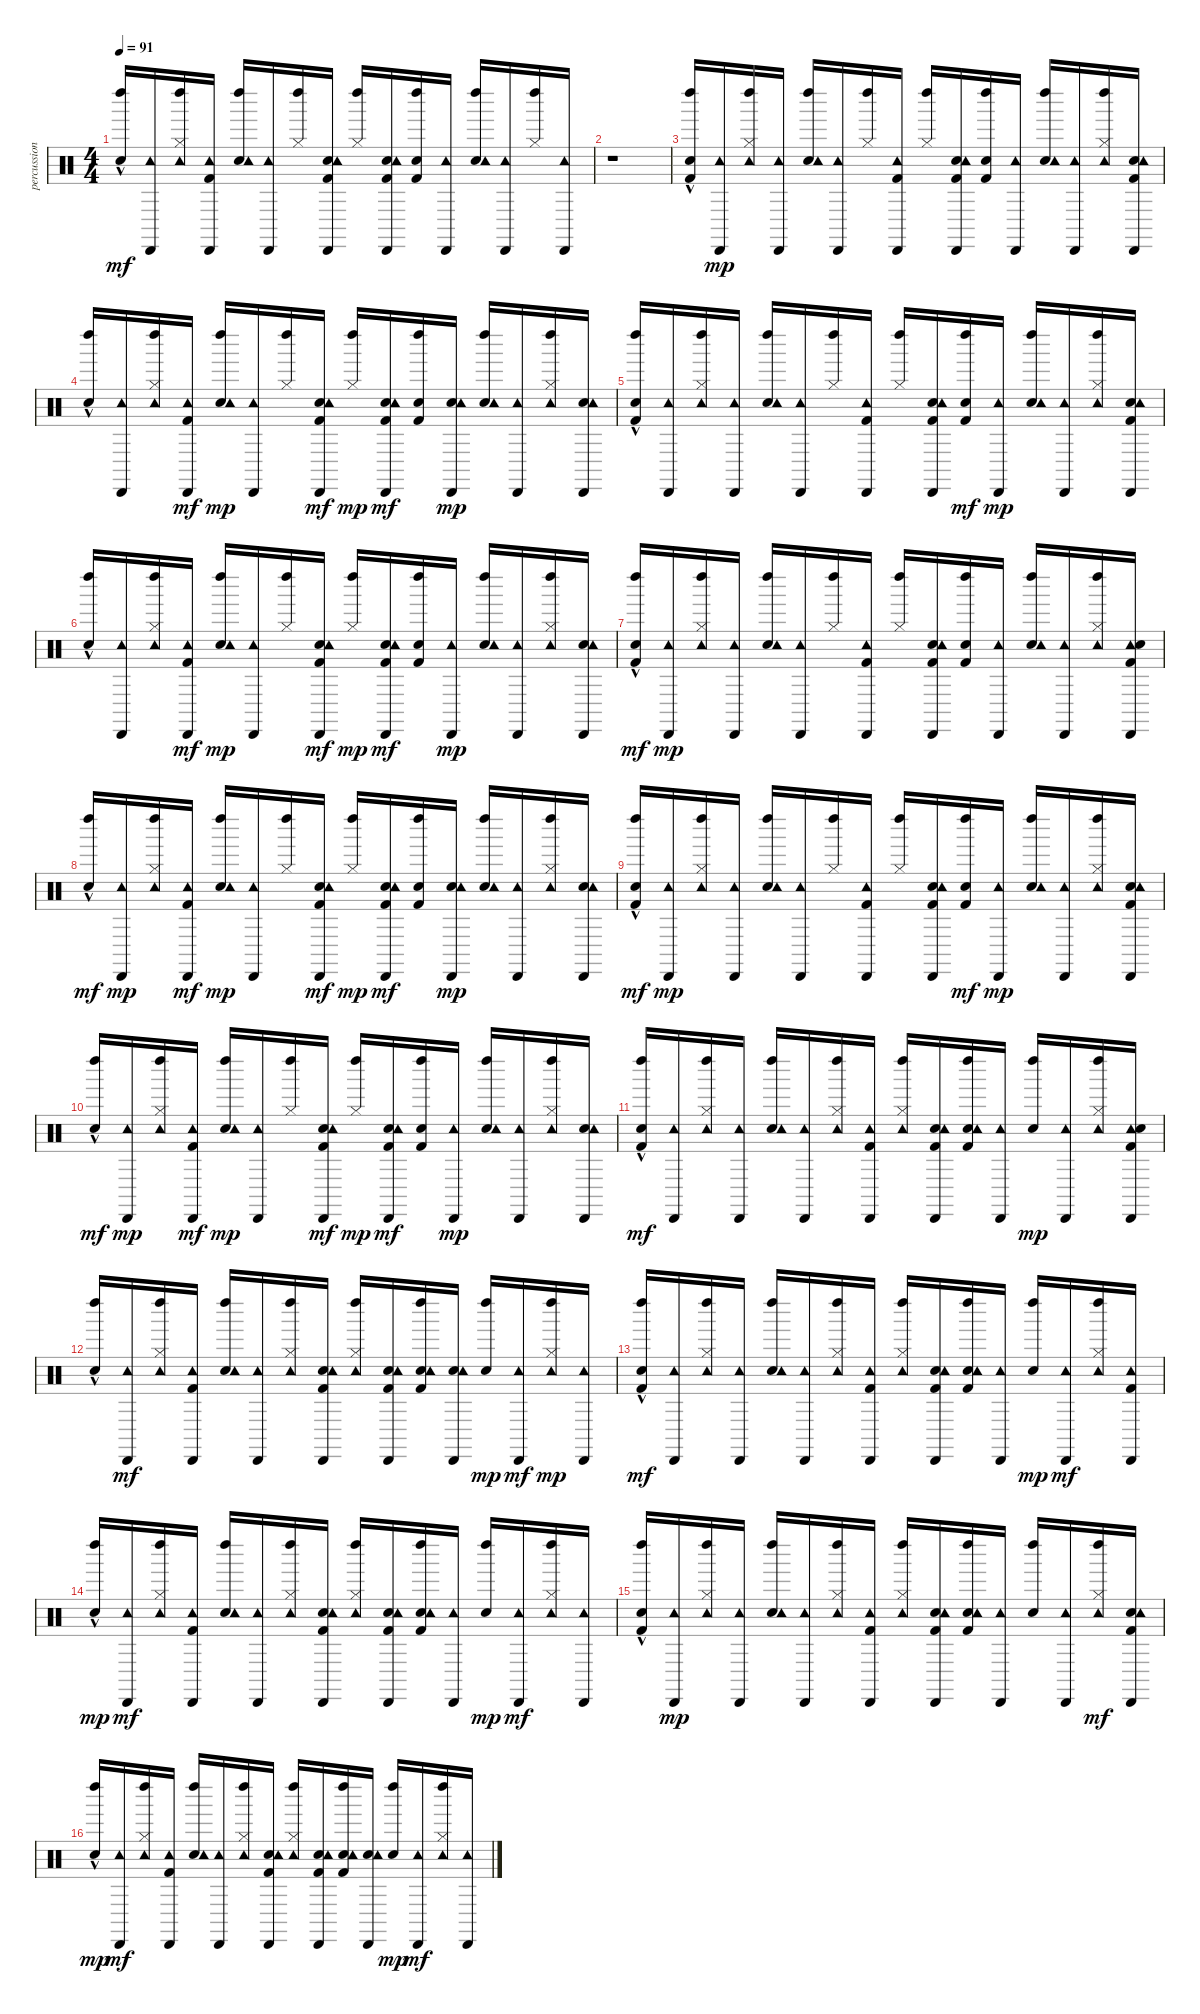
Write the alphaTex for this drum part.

\track ("percussion" "percussion") {instrument percussion}
\staff {score}
\articulation defaults
\ts (4 4)
\tempo 91
\clef neutral
\ks c
("Electric Snare (hit)"{hac} "Left Maraca (hit)").16{dy mf} ("Tambourine (hit)" "Cabasa (hit)").16 ("Hi-Hat (closed)" "Tambourine (hit)" "Left Maraca (hit)").16 ("Tambourine (hit)" "Kick (hit) 2" "Cabasa (hit)").16 ("Electric Snare (hit)" "Tambourine (hit)" "Left Maraca (hit)").16 ("Tambourine (hit)" "Cabasa (hit)").16 ("Hi-Hat (closed)" "Left Maraca (hit)").16 ("Electric Snare (hit)" "Tambourine (hit)" "Kick (hit) 2" "Cabasa (hit)").16 ("Hi-Hat (closed)" "Left Maraca (hit)").16 ("Electric Snare (hit)" "Tambourine (hit)" "Kick (hit) 2" "Cabasa (hit)").16 ("Electric Snare (hit)" "Kick (hit) 2" "Left Maraca (hit)").16 ("Tambourine (hit)" "Cabasa (hit)").16 ("Electric Snare (hit)" "Tambourine (hit)" "Left Maraca (hit)").16 ("Tambourine (hit)" "Cabasa (hit)").16 ("Hi-Hat (closed)" "Left Maraca (hit)").16 ("Tambourine (hit)" "Cabasa (hit)").16 |
r.1 |
("Left Maraca (hit)" "Electric Snare (hit)"{hac} "Kick (hit) 2").16 ("Cabasa (hit)" "Tambourine (hit)").16{dy mp volume 10} ("Hi-Hat (closed)" "Left Maraca (hit)" "Tambourine (hit)").16 ("Cabasa (hit)" "Tambourine (hit)").16 ("Electric Snare (hit)" "Left Maraca (hit)" "Tambourine (hit)").16 ("Cabasa (hit)" "Tambourine (hit)").16 ("Hi-Hat (closed)" "Left Maraca (hit)").16 ("Kick (hit) 2" "Cabasa (hit)" "Tambourine (hit)").16 ("Hi-Hat (closed)" "Left Maraca (hit)").16 ("Electric Snare (hit)" "Kick (hit) 2" "Cabasa (hit)" "Tambourine (hit)").16 ("Electric Snare (hit)" "Kick (hit) 2" "Left Maraca (hit)").16 ("Cabasa (hit)" "Tambourine (hit)").16 ("Electric Snare (hit)" "Left Maraca (hit)" "Tambourine (hit)").16 ("Cabasa (hit)" "Tambourine (hit)").16 ("Hi-Hat (closed)" "Left Maraca (hit)" "Tambourine (hit)").16 ("Electric Snare (hit)" "Kick (hit) 2" "Cabasa (hit)" "Tambourine (hit)").16 |
("Electric Snare (hit)"{hac} "Left Maraca (hit)").16 ("Tambourine (hit)" "Cabasa (hit)").16 ("Hi-Hat (closed)" "Tambourine (hit)" "Left Maraca (hit)").16 ("Tambourine (hit)" "Cabasa (hit)" "Kick (hit) 2").16{dy mf} ("Electric Snare (hit)" "Tambourine (hit)" "Left Maraca (hit)").16{dy mp} ("Tambourine (hit)" "Cabasa (hit)").16 ("Hi-Hat (closed)" "Left Maraca (hit)").16 ("Electric Snare (hit)" "Tambourine (hit)" "Cabasa (hit)" "Kick (hit) 2").16{dy mf} ("Hi-Hat (closed)" "Left Maraca (hit)").16{dy mp} ("Electric Snare (hit)" "Tambourine (hit)" "Cabasa (hit)" "Kick (hit) 2").16{dy mf} ("Electric Snare (hit)" "Left Maraca (hit)" "Kick (hit) 2").16 ("Electric Snare (hit)" "Tambourine (hit)" "Cabasa (hit)").16{dy mp} ("Electric Snare (hit)" "Tambourine (hit)" "Left Maraca (hit)").16 ("Tambourine (hit)" "Cabasa (hit)").16 ("Tambourine (hit)" "Hi-Hat (closed)" "Left Maraca (hit)").16 ("Electric Snare (hit)" "Tambourine (hit)" "Cabasa (hit)").16 |
("Kick (hit) 2" "Electric Snare (hit)"{hac} "Left Maraca (hit)").16 ("Tambourine (hit)" "Cabasa (hit)").16 ("Hi-Hat (closed)" "Tambourine (hit)" "Left Maraca (hit)").16 ("Tambourine (hit)" "Cabasa (hit)").16 ("Electric Snare (hit)" "Tambourine (hit)" "Left Maraca (hit)").16 ("Tambourine (hit)" "Cabasa (hit)").16 ("Hi-Hat (closed)" "Left Maraca (hit)").16 ("Kick (hit) 2" "Tambourine (hit)" "Cabasa (hit)").16 ("Hi-Hat (closed)" "Left Maraca (hit)").16 ("Kick (hit) 2" "Electric Snare (hit)" "Tambourine (hit)" "Cabasa (hit)").16 ("Electric Snare (hit)" "Left Maraca (hit)" "Kick (hit) 2").16{dy mf} ("Tambourine (hit)" "Cabasa (hit)").16{dy mp} ("Electric Snare (hit)" "Tambourine (hit)" "Left Maraca (hit)").16 ("Tambourine (hit)" "Cabasa (hit)").16 ("Tambourine (hit)" "Hi-Hat (closed)" "Left Maraca (hit)").16 ("Kick (hit) 2" "Electric Snare (hit)" "Tambourine (hit)" "Cabasa (hit)").16 |
("Electric Snare (hit)"{hac} "Left Maraca (hit)").16 ("Cabasa (hit)" "Tambourine (hit)").16 ("Hi-Hat (closed)" "Left Maraca (hit)" "Tambourine (hit)").16 ("Cabasa (hit)" "Tambourine (hit)" "Kick (hit) 2").16{dy mf} ("Electric Snare (hit)" "Left Maraca (hit)" "Tambourine (hit)").16{dy mp} ("Cabasa (hit)" "Tambourine (hit)").16 ("Hi-Hat (closed)" "Left Maraca (hit)").16 ("Electric Snare (hit)" "Cabasa (hit)" "Tambourine (hit)" "Kick (hit) 2").16{dy mf} ("Hi-Hat (closed)" "Left Maraca (hit)").16{dy mp} ("Electric Snare (hit)" "Cabasa (hit)" "Tambourine (hit)" "Kick (hit) 2").16{dy mf} ("Electric Snare (hit)" "Left Maraca (hit)" "Kick (hit) 2").16 ("Cabasa (hit)" "Tambourine (hit)").16{dy mp} ("Electric Snare (hit)" "Left Maraca (hit)" "Tambourine (hit)").16 ("Cabasa (hit)" "Tambourine (hit)").16 ("Tambourine (hit)" "Hi-Hat (closed)" "Left Maraca (hit)").16 ("Electric Snare (hit)" "Tambourine (hit)" "Cabasa (hit)").16 |
("Left Maraca (hit)" "Kick (hit) 2" "Electric Snare (hit)"{hac}).16{dy mf} ("Tambourine (hit)" "Cabasa (hit)").16{dy mp} ("Hi-Hat (closed)" "Tambourine (hit)" "Left Maraca (hit)").16 ("Tambourine (hit)" "Cabasa (hit)").16 ("Electric Snare (hit)" "Tambourine (hit)" "Left Maraca (hit)").16 ("Tambourine (hit)" "Cabasa (hit)").16 ("Hi-Hat (closed)" "Left Maraca (hit)").16 ("Kick (hit) 2" "Tambourine (hit)" "Cabasa (hit)").16 ("Hi-Hat (closed)" "Left Maraca (hit)").16 ("Kick (hit) 2" "Electric Snare (hit)" "Tambourine (hit)" "Cabasa (hit)").16 ("Kick (hit) 2" "Electric Snare (hit)" "Left Maraca (hit)").16 ("Tambourine (hit)" "Cabasa (hit)").16 ("Electric Snare (hit)" "Tambourine (hit)" "Left Maraca (hit)").16 ("Tambourine (hit)" "Cabasa (hit)").16 ("Tambourine (hit)" "Hi-Hat (closed)" "Left Maraca (hit)").16 ("Kick (hit) 2" "Tambourine (hit)" "Electric Snare (hit)" "Cabasa (hit)").16 |
("Left Maraca (hit)" "Electric Snare (hit)"{hac}).16{dy mf} ("Cabasa (hit)" "Tambourine (hit)").16{dy mp} ("Hi-Hat (closed)" "Left Maraca (hit)" "Tambourine (hit)").16 ("Cabasa (hit)" "Tambourine (hit)" "Kick (hit) 2").16{dy mf} ("Electric Snare (hit)" "Left Maraca (hit)" "Tambourine (hit)").16{dy mp} ("Cabasa (hit)" "Tambourine (hit)").16 ("Hi-Hat (closed)" "Left Maraca (hit)").16 ("Electric Snare (hit)" "Cabasa (hit)" "Tambourine (hit)" "Kick (hit) 2").16{dy mf} ("Hi-Hat (closed)" "Left Maraca (hit)").16{dy mp} ("Electric Snare (hit)" "Cabasa (hit)" "Tambourine (hit)" "Kick (hit) 2").16{dy mf} ("Electric Snare (hit)" "Left Maraca (hit)" "Kick (hit) 2").16 ("Electric Snare (hit)" "Cabasa (hit)" "Tambourine (hit)").16{dy mp} ("Electric Snare (hit)" "Left Maraca (hit)" "Tambourine (hit)").16 ("Cabasa (hit)" "Tambourine (hit)").16 ("Tambourine (hit)" "Hi-Hat (closed)" "Left Maraca (hit)").16 ("Electric Snare (hit)" "Tambourine (hit)" "Cabasa (hit)").16 |
("Kick (hit) 2" "Left Maraca (hit)" "Electric Snare (hit)"{hac}).16{dy mf} ("Cabasa (hit)" "Tambourine (hit)").16{dy mp} ("Hi-Hat (closed)" "Left Maraca (hit)" "Tambourine (hit)").16 ("Cabasa (hit)" "Tambourine (hit)").16 ("Electric Snare (hit)" "Left Maraca (hit)" "Tambourine (hit)").16 ("Cabasa (hit)" "Tambourine (hit)").16 ("Hi-Hat (closed)" "Left Maraca (hit)").16 ("Kick (hit) 2" "Cabasa (hit)" "Tambourine (hit)").16 ("Hi-Hat (closed)" "Left Maraca (hit)").16 ("Kick (hit) 2" "Electric Snare (hit)" "Cabasa (hit)" "Tambourine (hit)").16 ("Electric Snare (hit)" "Left Maraca (hit)" "Kick (hit) 2").16{dy mf} ("Cabasa (hit)" "Tambourine (hit)").16{dy mp} ("Electric Snare (hit)" "Left Maraca (hit)" "Tambourine (hit)").16 ("Cabasa (hit)" "Tambourine (hit)").16 ("Tambourine (hit)" "Hi-Hat (closed)" "Left Maraca (hit)").16 ("Kick (hit) 2" "Electric Snare (hit)" "Tambourine (hit)" "Cabasa (hit)").16 |
("Left Maraca (hit)" "Electric Snare (hit)"{hac}).16{dy mf} ("Tambourine (hit)" "Cabasa (hit)").16{dy mp} ("Hi-Hat (closed)" "Tambourine (hit)" "Left Maraca (hit)").16 ("Tambourine (hit)" "Cabasa (hit)" "Kick (hit) 2").16{dy mf} ("Electric Snare (hit)" "Tambourine (hit)" "Left Maraca (hit)").16{dy mp} ("Tambourine (hit)" "Cabasa (hit)").16 ("Hi-Hat (closed)" "Left Maraca (hit)").16 ("Electric Snare (hit)" "Tambourine (hit)" "Cabasa (hit)" "Kick (hit) 2").16{dy mf} ("Hi-Hat (closed)" "Left Maraca (hit)").16{dy mp} ("Electric Snare (hit)" "Tambourine (hit)" "Cabasa (hit)" "Kick (hit) 2").16{dy mf} ("Electric Snare (hit)" "Left Maraca (hit)" "Kick (hit) 2").16 ("Tambourine (hit)" "Cabasa (hit)").16{dy mp} ("Electric Snare (hit)" "Tambourine (hit)" "Left Maraca (hit)").16 ("Tambourine (hit)" "Cabasa (hit)").16 ("Tambourine (hit)" "Hi-Hat (closed)" "Left Maraca (hit)").16 ("Electric Snare (hit)" "Tambourine (hit)" "Cabasa (hit)").16 |
("Kick (hit) 2" "Left Maraca (hit)" "Electric Snare (hit)"{hac}).16{dy mf volume 13} ("Cabasa (hit)" "Tambourine (hit)").16 ("Hi-Hat (closed)" "Left Maraca (hit)" "Tambourine (hit)").16 ("Cabasa (hit)" "Tambourine (hit)").16 ("Electric Snare (hit)" "Left Maraca (hit)" "Tambourine (hit)").16 ("Cabasa (hit)" "Tambourine (hit)").16 ("Hi-Hat (closed)" "Left Maraca (hit)" "Tambourine (hit)").16 ("Kick (hit) 2" "Cabasa (hit)" "Tambourine (hit)").16 ("Hi-Hat (closed)" "Left Maraca (hit)" "Tambourine (hit)").16 ("Kick (hit) 2" "Electric Snare (hit)" "Cabasa (hit)" "Tambourine (hit)").16 ("Kick (hit) 2" "Electric Snare (hit)" "Left Maraca (hit)" "Tambourine (hit)").16 ("Cabasa (hit)" "Tambourine (hit)").16 ("Electric Snare (hit)" "Left Maraca (hit)").16{dy mp} ("Tambourine (hit)" "Cabasa (hit)").16 ("Tambourine (hit)" "Hi-Hat (closed)" "Left Maraca (hit)").16 ("Kick (hit) 2" "Tambourine (hit)" "Electric Snare (hit)" "Cabasa (hit)").16 |
("Electric Snare (hit)"{hac} "Left Maraca (hit)").16 ("Cabasa (hit)" "Tambourine (hit)").16{dy mf} ("Hi-Hat (closed)" "Left Maraca (hit)" "Tambourine (hit)").16 ("Cabasa (hit)" "Tambourine (hit)" "Kick (hit) 2").16 ("Electric Snare (hit)" "Left Maraca (hit)" "Tambourine (hit)").16 ("Cabasa (hit)" "Tambourine (hit)").16 ("Hi-Hat (closed)" "Left Maraca (hit)" "Tambourine (hit)").16 ("Electric Snare (hit)" "Cabasa (hit)" "Tambourine (hit)" "Kick (hit) 2").16 ("Hi-Hat (closed)" "Left Maraca (hit)" "Tambourine (hit)").16 ("Electric Snare (hit)" "Cabasa (hit)" "Tambourine (hit)" "Kick (hit) 2").16 ("Electric Snare (hit)" "Left Maraca (hit)" "Tambourine (hit)" "Kick (hit) 2").16 ("Electric Snare (hit)" "Cabasa (hit)" "Tambourine (hit)").16 ("Electric Snare (hit)" "Left Maraca (hit)").16{dy mp} ("Cabasa (hit)" "Tambourine (hit)").16{dy mf} ("Tambourine (hit)" "Hi-Hat (closed)" "Left Maraca (hit)").16{dy mp} ("Tambourine (hit)" "Cabasa (hit)").16 |
("Electric Snare (hit)"{hac} "Left Maraca (hit)" "Kick (hit) 2").16{dy mf} ("Cabasa (hit)" "Tambourine (hit)").16 ("Hi-Hat (closed)" "Left Maraca (hit)" "Tambourine (hit)").16 ("Cabasa (hit)" "Tambourine (hit)").16 ("Electric Snare (hit)" "Left Maraca (hit)" "Tambourine (hit)").16 ("Cabasa (hit)" "Tambourine (hit)").16 ("Hi-Hat (closed)" "Left Maraca (hit)" "Tambourine (hit)").16 ("Kick (hit) 2" "Cabasa (hit)" "Tambourine (hit)").16 ("Hi-Hat (closed)" "Left Maraca (hit)" "Tambourine (hit)").16 ("Electric Snare (hit)" "Kick (hit) 2" "Cabasa (hit)" "Tambourine (hit)").16 ("Electric Snare (hit)" "Left Maraca (hit)" "Tambourine (hit)" "Kick (hit) 2").16 ("Cabasa (hit)" "Tambourine (hit)").16 ("Electric Snare (hit)" "Left Maraca (hit)").16{dy mp} ("Cabasa (hit)" "Tambourine (hit)").16{dy mf} ("Hi-Hat (closed)" "Left Maraca (hit)" "Tambourine (hit)").16 ("Kick (hit) 2" "Cabasa (hit)" "Tambourine (hit)").16 |
("Electric Snare (hit)"{hac} "Left Maraca (hit)").16{dy mp} ("Cabasa (hit)" "Tambourine (hit)").16{dy mf} ("Hi-Hat (closed)" "Left Maraca (hit)" "Tambourine (hit)").16 ("Cabasa (hit)" "Tambourine (hit)" "Kick (hit) 2").16 ("Electric Snare (hit)" "Left Maraca (hit)" "Tambourine (hit)").16 ("Cabasa (hit)" "Tambourine (hit)").16 ("Hi-Hat (closed)" "Left Maraca (hit)" "Tambourine (hit)").16 ("Electric Snare (hit)" "Cabasa (hit)" "Tambourine (hit)" "Kick (hit) 2").16 ("Hi-Hat (closed)" "Left Maraca (hit)" "Tambourine (hit)").16 ("Electric Snare (hit)" "Cabasa (hit)" "Tambourine (hit)" "Kick (hit) 2").16 ("Electric Snare (hit)" "Left Maraca (hit)" "Tambourine (hit)" "Kick (hit) 2").16 ("Cabasa (hit)" "Tambourine (hit)").16 ("Electric Snare (hit)" "Left Maraca (hit)").16{dy mp} ("Cabasa (hit)" "Tambourine (hit)").16{dy mf} ("Hi-Hat (closed)" "Left Maraca (hit)" "Tambourine (hit)").16 ("Cabasa (hit)" "Tambourine (hit)").16 |
("Electric Snare (hit)"{hac} "Left Maraca (hit)" "Kick (hit) 2").16 ("Tambourine (hit)" "Cabasa (hit)").16{dy mp} ("Hi-Hat (closed)" "Tambourine (hit)" "Left Maraca (hit)").16 ("Tambourine (hit)" "Cabasa (hit)").16 ("Electric Snare (hit)" "Tambourine (hit)" "Left Maraca (hit)").16 ("Tambourine (hit)" "Cabasa (hit)").16 ("Hi-Hat (closed)" "Tambourine (hit)" "Left Maraca (hit)").16 ("Kick (hit) 2" "Tambourine (hit)" "Cabasa (hit)").16 ("Hi-Hat (closed)" "Tambourine (hit)" "Left Maraca (hit)").16 ("Electric Snare (hit)" "Kick (hit) 2" "Tambourine (hit)" "Cabasa (hit)").16 ("Electric Snare (hit)" "Kick (hit) 2" "Tambourine (hit)" "Left Maraca (hit)").16 ("Tambourine (hit)" "Cabasa (hit)").16 ("Electric Snare (hit)" "Left Maraca (hit)").16 ("Tambourine (hit)" "Cabasa (hit)").16 ("Hi-Hat (closed)" "Left Maraca (hit)" "Tambourine (hit)").16{dy mf} ("Electric Snare (hit)" "Kick (hit) 2" "Cabasa (hit)" "Tambourine (hit)").16 |
("Electric Snare (hit)"{hac} "Left Maraca (hit)").16{dy mp} ("Cabasa (hit)" "Tambourine (hit)").16{dy mf} ("Hi-Hat (closed)" "Left Maraca (hit)" "Tambourine (hit)").16 ("Cabasa (hit)" "Tambourine (hit)" "Kick (hit) 2").16 ("Electric Snare (hit)" "Left Maraca (hit)" "Tambourine (hit)").16 ("Cabasa (hit)" "Tambourine (hit)").16 ("Hi-Hat (closed)" "Left Maraca (hit)" "Tambourine (hit)").16 ("Electric Snare (hit)" "Cabasa (hit)" "Tambourine (hit)" "Kick (hit) 2").16 ("Hi-Hat (closed)" "Left Maraca (hit)" "Tambourine (hit)").16 ("Electric Snare (hit)" "Cabasa (hit)" "Tambourine (hit)" "Kick (hit) 2").16 ("Electric Snare (hit)" "Left Maraca (hit)" "Tambourine (hit)" "Kick (hit) 2").16 ("Electric Snare (hit)" "Cabasa (hit)" "Tambourine (hit)").16 ("Electric Snare (hit)" "Left Maraca (hit)").16{dy mp} ("Cabasa (hit)" "Tambourine (hit)").16{dy mf} ("Hi-Hat (closed)" "Left Maraca (hit)" "Tambourine (hit)").16 ("Cabasa (hit)" "Tambourine (hit)").16
